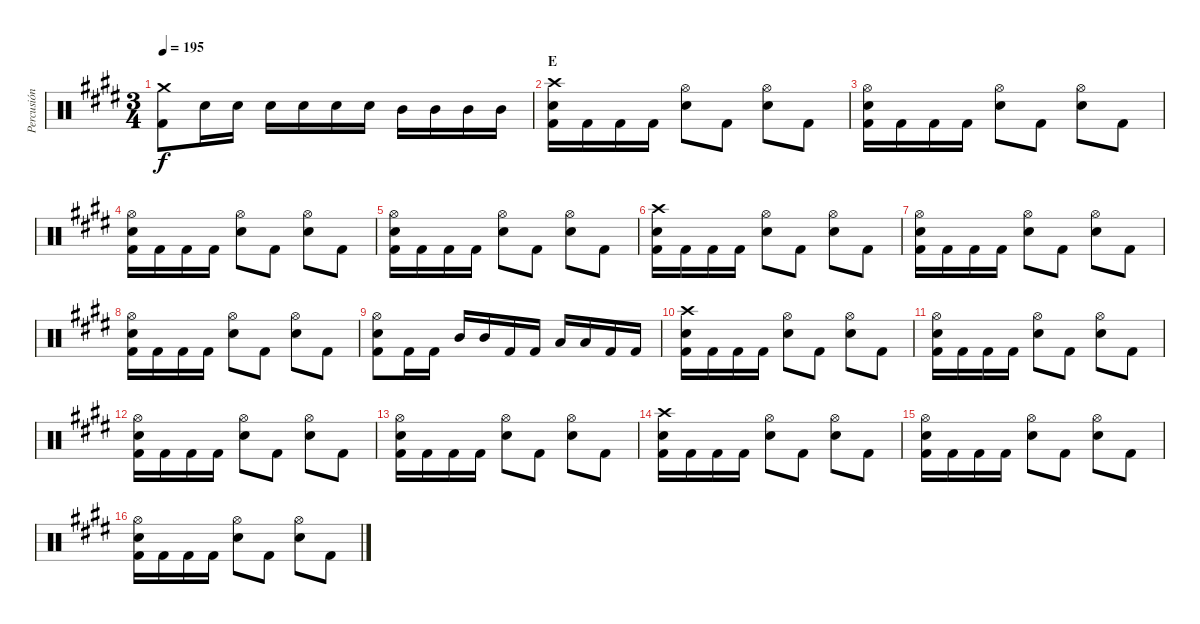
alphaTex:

\track ("Percusión" "Percusión") {instrument percussion}
\staff {score}
\articulation defaults
\ts (3 4)
\tempo 195
\clef neutral
\ks e
("Crash medium (hit)" "Kick (hit) 2").8{dy f} "Electric Snare (hit)".16 "Electric Snare (hit)".16 "Electric Snare (hit)".16 "Electric Snare (hit)".16 "Electric Snare (hit)".16 "Electric Snare (hit)".16 "Mid Tom (hit)".16 "Mid Tom (hit)".16 "Mid Tom (hit)".16 "Mid Tom (hit)".16 |
\section ("" "E")
("Crash high (hit)" "Electric Snare (hit)" "Kick (hit) 2").16 "Kick (hit) 2".16 "Kick (hit) 2".16 "Kick (hit) 2".16 ("Hi-Hat (open)" "Electric Snare (hit)").8 "Kick (hit) 2".8 ("Hi-Hat (open)" "Electric Snare (hit)").8 "Kick (hit) 2".8 |
("Hi-Hat (open)" "Electric Snare (hit)" "Kick (hit) 2").16 "Kick (hit) 2".16 "Kick (hit) 2".16 "Kick (hit) 2".16 ("Hi-Hat (open)" "Electric Snare (hit)").8 "Kick (hit) 2".8 ("Hi-Hat (open)" "Electric Snare (hit)").8 "Kick (hit) 2".8 |
("Hi-Hat (open)" "Electric Snare (hit)" "Kick (hit) 2").16 "Kick (hit) 2".16 "Kick (hit) 2".16 "Kick (hit) 2".16 ("Hi-Hat (open)" "Electric Snare (hit)").8 "Kick (hit) 2".8 ("Hi-Hat (open)" "Electric Snare (hit)").8 "Kick (hit) 2".8 |
("Hi-Hat (open)" "Electric Snare (hit)" "Kick (hit) 2").16 "Kick (hit) 2".16 "Kick (hit) 2".16 "Kick (hit) 2".16 ("Hi-Hat (open)" "Electric Snare (hit)").8 "Kick (hit) 2".8 ("Hi-Hat (open)" "Electric Snare (hit)").8 "Kick (hit) 2".8 |
("Crash high (hit)" "Electric Snare (hit)" "Kick (hit) 2").16 "Kick (hit) 2".16 "Kick (hit) 2".16 "Kick (hit) 2".16 ("Hi-Hat (open)" "Electric Snare (hit)").8 "Kick (hit) 2".8 ("Hi-Hat (open)" "Electric Snare (hit)").8 "Kick (hit) 2".8 |
("Hi-Hat (open)" "Electric Snare (hit)" "Kick (hit) 2").16 "Kick (hit) 2".16 "Kick (hit) 2".16 "Kick (hit) 2".16 ("Hi-Hat (open)" "Electric Snare (hit)").8 "Kick (hit) 2".8 ("Hi-Hat (open)" "Electric Snare (hit)").8 "Kick (hit) 2".8 |
("Hi-Hat (open)" "Electric Snare (hit)" "Kick (hit) 2").16 "Kick (hit) 2".16 "Kick (hit) 2".16 "Kick (hit) 2".16 ("Hi-Hat (open)" "Electric Snare (hit)").8 "Kick (hit) 2".8 ("Hi-Hat (open)" "Electric Snare (hit)").8 "Kick (hit) 2".8 |
("Hi-Hat (open)" "Electric Snare (hit)" "Kick (hit) 2").8 "Kick (hit) 2".16 "Kick (hit) 2".16 "Mid Tom (hit)".16 "Mid Tom (hit)".16 "Kick (hit) 2".16 "Kick (hit) 2".16 "Low Tom (hit)".16 "Low Tom (hit)".16 "Kick (hit) 2".16 "Kick (hit) 2".16 |
("Crash high (hit)" "Electric Snare (hit)" "Kick (hit) 2").16 "Kick (hit) 2".16 "Kick (hit) 2".16 "Kick (hit) 2".16 ("Hi-Hat (open)" "Electric Snare (hit)").8 "Kick (hit) 2".8 ("Hi-Hat (open)" "Electric Snare (hit)").8 "Kick (hit) 2".8 |
("Hi-Hat (open)" "Electric Snare (hit)" "Kick (hit) 2").16 "Kick (hit) 2".16 "Kick (hit) 2".16 "Kick (hit) 2".16 ("Hi-Hat (open)" "Electric Snare (hit)").8 "Kick (hit) 2".8 ("Hi-Hat (open)" "Electric Snare (hit)").8 "Kick (hit) 2".8 |
("Hi-Hat (open)" "Electric Snare (hit)" "Kick (hit) 2").16 "Kick (hit) 2".16 "Kick (hit) 2".16 "Kick (hit) 2".16 ("Hi-Hat (open)" "Electric Snare (hit)").8 "Kick (hit) 2".8 ("Hi-Hat (open)" "Electric Snare (hit)").8 "Kick (hit) 2".8 |
("Hi-Hat (open)" "Electric Snare (hit)" "Kick (hit) 2").16 "Kick (hit) 2".16 "Kick (hit) 2".16 "Kick (hit) 2".16 ("Hi-Hat (open)" "Electric Snare (hit)").8 "Kick (hit) 2".8 ("Hi-Hat (open)" "Electric Snare (hit)").8 "Kick (hit) 2".8 |
("Crash high (hit)" "Electric Snare (hit)" "Kick (hit) 2").16 "Kick (hit) 2".16 "Kick (hit) 2".16 "Kick (hit) 2".16 ("Hi-Hat (open)" "Electric Snare (hit)").8 "Kick (hit) 2".8 ("Hi-Hat (open)" "Electric Snare (hit)").8 "Kick (hit) 2".8 |
("Hi-Hat (open)" "Electric Snare (hit)" "Kick (hit) 2").16 "Kick (hit) 2".16 "Kick (hit) 2".16 "Kick (hit) 2".16 ("Hi-Hat (open)" "Electric Snare (hit)").8 "Kick (hit) 2".8 ("Hi-Hat (open)" "Electric Snare (hit)").8 "Kick (hit) 2".8 |
("Hi-Hat (open)" "Electric Snare (hit)" "Kick (hit) 2").16 "Kick (hit) 2".16 "Kick (hit) 2".16 "Kick (hit) 2".16 ("Hi-Hat (open)" "Electric Snare (hit)").8 "Kick (hit) 2".8 ("Hi-Hat (open)" "Electric Snare (hit)").8 "Kick (hit) 2".8
